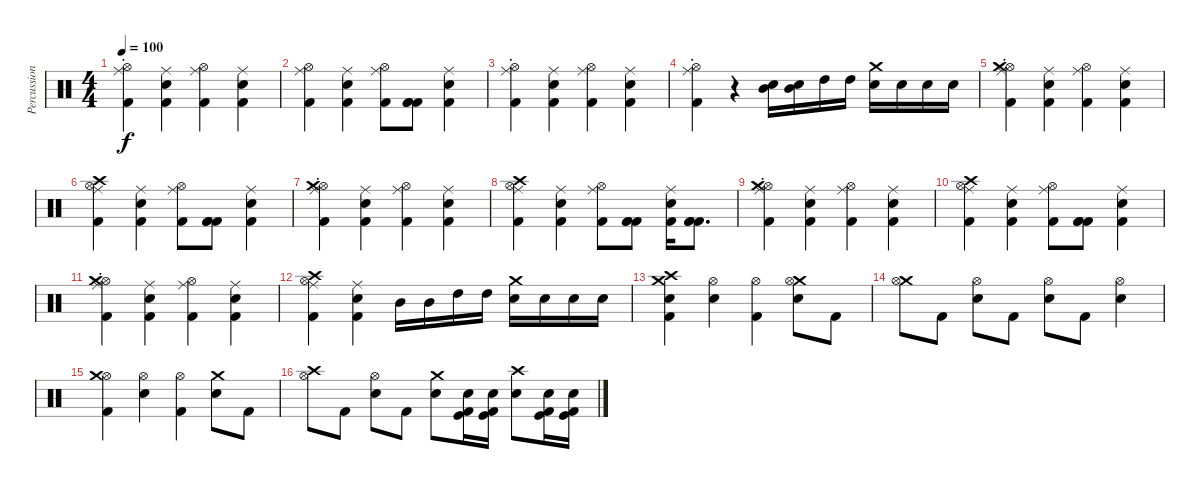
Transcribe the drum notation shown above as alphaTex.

\track ("Percussions" "Percussion") {instrument percussion}
\staff {score}
\articulation defaults
\ts (4 4)
\tempo 100
\clef neutral
\ks c
("Ride (middle)" "Kick (hit) 2" "Hi-Hat (open)"{st}).4{dy f} ("Snare (hit) 2" "Kick (hit) 2" "Ride (middle)").4 ("Kick (hit) 2" "Ride (middle)" "Hi-Hat (open)").4 ("Kick (hit) 2" "Snare (hit) 2" "Ride (middle)").4 |
("Kick (hit) 2" "Ride (middle)" "Hi-Hat (open)").4 ("Kick (hit) 2" "Snare (hit) 2" "Ride (middle)").4 ("Kick (hit) 2" "Ride (middle)" "Hi-Hat (open)").8 ("Kick (hit) 2" "Kick (hit) 2" "Kick (hit) 2").8 ("Kick (hit) 2" "Snare (hit) 2" "Ride (middle)").4 |
("Ride (middle)" "Kick (hit) 2" "Hi-Hat (open)"{st}).4 ("Snare (hit) 2" "Kick (hit) 2" "Ride (middle)").4 ("Kick (hit) 2" "Ride (middle)" "Hi-Hat (open)").4 ("Kick (hit) 2" "Snare (hit) 2" "Ride (middle)").4 |
("Ride (middle)" "Kick (hit) 2" "Hi-Hat (open)"{st}).4 r.4 ("Snare (hit) 2" "Mid Tom (hit)").16 ("Snare (hit) 2" "Mid Tom (hit)").16 "High Tom (hit)".16 "High Tom (hit)".16 ("Crash medium (hit)" "Snare (hit) 2").16 "Snare (hit) 2".16 "Snare (hit) 2".16 "Snare (hit) 2".16 |
("Ride (middle)" "Kick (hit) 2" "Hi-Hat (open)"{st} "Crash medium (hit)").4 ("Snare (hit) 2" "Kick (hit) 2" "Ride (middle)").4 ("Kick (hit) 2" "Ride (middle)" "Hi-Hat (open)").4 ("Kick (hit) 2" "Snare (hit) 2" "Ride (middle)").4 |
("Kick (hit) 2" "Ride (middle)" "Hi-Hat (open)" "Crash high (hit)").4 ("Kick (hit) 2" "Snare (hit) 2" "Ride (middle)").4 ("Kick (hit) 2" "Ride (middle)" "Hi-Hat (open)").8 ("Kick (hit) 2" "Kick (hit) 2" "Kick (hit) 2").8 ("Kick (hit) 2" "Snare (hit) 2" "Ride (middle)").4 |
("Ride (middle)" "Kick (hit) 2" "Hi-Hat (open)"{st} "Crash medium (hit)").4 ("Snare (hit) 2" "Kick (hit) 2" "Ride (middle)").4 ("Kick (hit) 2" "Ride (middle)" "Hi-Hat (open)").4 ("Kick (hit) 2" "Snare (hit) 2" "Ride (middle)").4 |
("Kick (hit) 2" "Ride (middle)" "Hi-Hat (open)" "Crash high (hit)").4 ("Kick (hit) 2" "Snare (hit) 2" "Ride (middle)").4 ("Kick (hit) 2" "Ride (middle)" "Hi-Hat (open)").8 ("Kick (hit) 2" "Kick (hit) 2" "Kick (hit) 2").8 ("Kick (hit) 2" "Snare (hit) 2" "Ride (middle)").16 ("Kick (hit) 2" "Kick (hit) 2" "Kick (hit) 2").8{d} |
("Ride (middle)" "Kick (hit) 2" "Hi-Hat (open)"{st} "Crash medium (hit)").4 ("Snare (hit) 2" "Kick (hit) 2" "Ride (middle)").4 ("Kick (hit) 2" "Ride (middle)" "Hi-Hat (open)").4 ("Kick (hit) 2" "Snare (hit) 2" "Ride (middle)").4 |
("Kick (hit) 2" "Ride (middle)" "Hi-Hat (open)" "Crash high (hit)").4 ("Kick (hit) 2" "Snare (hit) 2" "Ride (middle)").4 ("Kick (hit) 2" "Ride (middle)" "Hi-Hat (open)").8 ("Kick (hit) 2" "Kick (hit) 2" "Kick (hit) 2").8 ("Kick (hit) 2" "Snare (hit) 2" "Ride (middle)").4 |
("Ride (middle)" "Kick (hit) 2" "Hi-Hat (open)"{st} "Crash medium (hit)").4 ("Snare (hit) 2" "Kick (hit) 2" "Ride (middle)").4 ("Kick (hit) 2" "Ride (middle)" "Hi-Hat (open)").4 ("Kick (hit) 2" "Snare (hit) 2" "Ride (middle)").4 |
("Kick (hit) 2" "Ride (middle)" "Hi-Hat (open)" "Crash high (hit)").4 ("Kick (hit) 2" "Snare (hit) 2" "Ride (middle)").4 "Mid Tom (hit)".16 "Mid Tom (hit)".16 "High Tom (hit)".16 "High Tom (hit)".16 ("Crash medium (hit)" "Snare (hit) 2").16 "Snare (hit) 2".16 "Snare (hit) 2".16 "Snare (hit) 2".16 |
("Crash medium (hit)" "Crash high (hit)" "Snare (hit) 2" "Kick (hit) 2").4 ("Hi-Hat (open)" "Snare (hit) 2").4 ("Hi-Hat (open)" "Kick (hit) 2").4 ("Crash medium (hit)" "Hi-Hat (open)" "Snare (hit) 2").8 "Kick (hit) 2".8 |
("Crash medium (hit)" "Hi-Hat (open)").8 "Kick (hit) 2".8 ("Hi-Hat (open)" "Snare (hit) 2").8 "Kick (hit) 2".8 ("Hi-Hat (open)" "Snare (hit) 2").8 "Kick (hit) 2".8 ("Hi-Hat (open)" "Snare (hit) 2").4 |
("Hi-Hat (open)" "Crash medium (hit)" "Kick (hit) 2").4 ("Hi-Hat (open)" "Snare (hit) 2").4 ("Hi-Hat (open)" "Kick (hit) 2").4 ("Crash medium (hit)" "Snare (hit) 2").8 "Kick (hit) 2".8 |
("Crash high (hit)" "Hi-Hat (open)").8 "Kick (hit) 2".8 ("Hi-Hat (open)" "Snare (hit) 2").8 "Kick (hit) 2".8 ("Crash medium (hit)" "Snare (hit) 2").8 ("Snare (hit) 2" "Kick (hit)" "Kick (hit) 2").16 ("Snare (hit) 2" "Kick (hit)" "Kick (hit) 2").16 ("Crash high (hit)" "Snare (hit) 2").8 ("Snare (hit) 2" "Kick (hit)" "Kick (hit) 2").16 ("Snare (hit) 2" "Kick (hit)" "Kick (hit) 2").16
